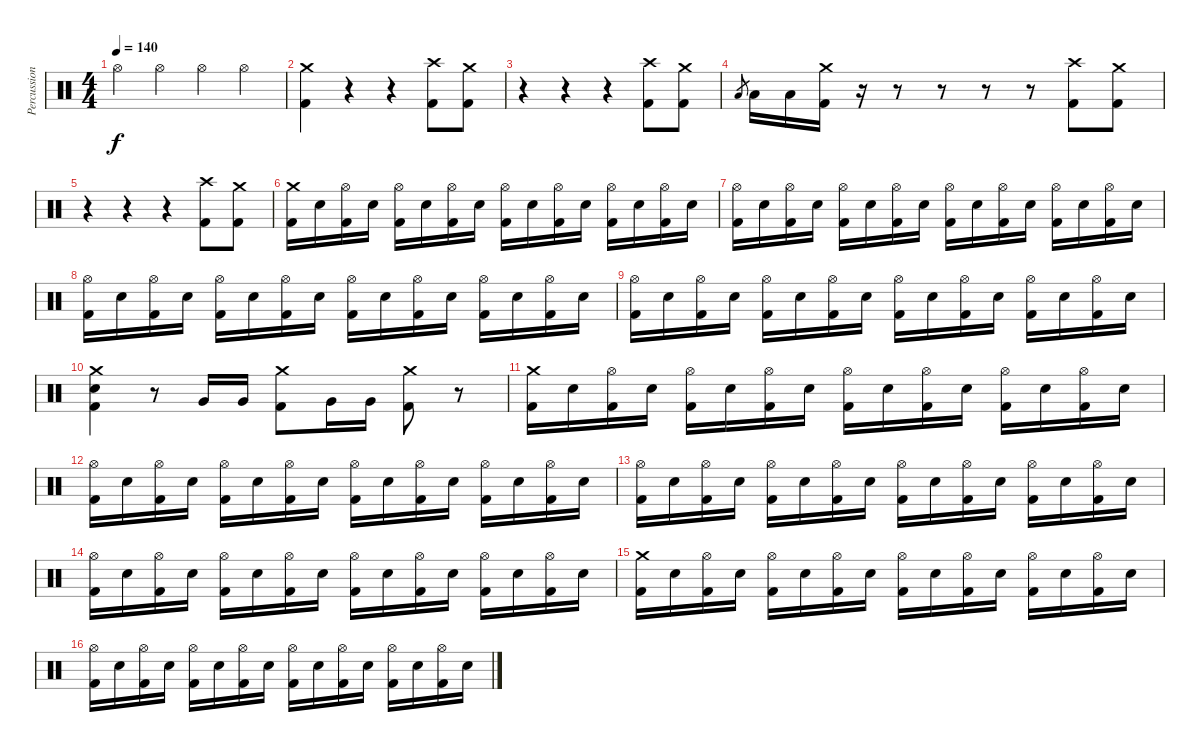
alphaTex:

\track ("Percussion" "Percussion") {instrument percussion}
\staff {score}
\articulation defaults
\ts (4 4)
\tempo 140
\clef neutral
\ks c "Hi-Hat (open)".4{dy f} "Hi-Hat (open)".4 "Hi-Hat (open)".4 "Hi-Hat (open)".4
|
("Crash medium (hit)" "Kick (hit) 2").4 r.4 r.4 ("Crash high (hit)" "Kick (hit) 2").8 ("Crash medium (hit)" "Kick (hit) 2").8 |
r.4 r.4 r.4 ("Crash high (hit)" "Kick (hit) 2").8 ("Crash medium (hit)" "Kick (hit) 2").8 |
"Low Floor Tom (hit)".8{gr} "Low Floor Tom (hit)".16 "Low Floor Tom (hit)".16 ("Crash medium (hit)" "Kick (hit) 2").16 r.16 r.8 r.8 r.8 r.8 ("Crash high (hit)" "Kick (hit) 2").8 ("Crash medium (hit)" "Kick (hit) 2").8 |
r.4 r.4 r.4 ("Crash high (hit)" "Kick (hit) 2").8 ("Crash medium (hit)" "Kick (hit) 2").8 |
("Crash medium (hit)" "Kick (hit) 2").16 "Electric Snare (hit)".16 ("Hi-Hat (open)" "Kick (hit) 2").16 "Electric Snare (hit)".16 ("Hi-Hat (open)" "Kick (hit) 2").16 "Electric Snare (hit)".16 ("Hi-Hat (open)" "Kick (hit) 2").16 "Electric Snare (hit)".16 ("Hi-Hat (open)" "Kick (hit) 2").16 "Electric Snare (hit)".16 ("Hi-Hat (open)" "Kick (hit) 2").16 "Electric Snare (hit)".16 ("Hi-Hat (open)" "Kick (hit) 2").16 "Electric Snare (hit)".16 ("Hi-Hat (open)" "Kick (hit) 2").16 "Electric Snare (hit)".16 |
("Hi-Hat (open)" "Kick (hit) 2").16 "Electric Snare (hit)".16 ("Hi-Hat (open)" "Kick (hit) 2").16 "Electric Snare (hit)".16 ("Hi-Hat (open)" "Kick (hit) 2").16 "Electric Snare (hit)".16 ("Hi-Hat (open)" "Kick (hit) 2").16 "Electric Snare (hit)".16 ("Hi-Hat (open)" "Kick (hit) 2").16 "Electric Snare (hit)".16 ("Hi-Hat (open)" "Kick (hit) 2").16 "Electric Snare (hit)".16 ("Hi-Hat (open)" "Kick (hit) 2").16 "Electric Snare (hit)".16 ("Hi-Hat (open)" "Kick (hit) 2").16 "Electric Snare (hit)".16 |
("Hi-Hat (open)" "Kick (hit) 2").16 "Electric Snare (hit)".16 ("Hi-Hat (open)" "Kick (hit) 2").16 "Electric Snare (hit)".16 ("Hi-Hat (open)" "Kick (hit) 2").16 "Electric Snare (hit)".16 ("Hi-Hat (open)" "Kick (hit) 2").16 "Electric Snare (hit)".16 ("Hi-Hat (open)" "Kick (hit) 2").16 "Electric Snare (hit)".16 ("Hi-Hat (open)" "Kick (hit) 2").16 "Electric Snare (hit)".16 ("Hi-Hat (open)" "Kick (hit) 2").16 "Electric Snare (hit)".16 ("Hi-Hat (open)" "Kick (hit) 2").16 "Electric Snare (hit)".16 |
("Hi-Hat (open)" "Kick (hit) 2").16 "Electric Snare (hit)".16 ("Hi-Hat (open)" "Kick (hit) 2").16 "Electric Snare (hit)".16 ("Hi-Hat (open)" "Kick (hit) 2").16 "Electric Snare (hit)".16 ("Hi-Hat (open)" "Kick (hit) 2").16 "Electric Snare (hit)".16 ("Hi-Hat (open)" "Kick (hit) 2").16 "Electric Snare (hit)".16 ("Hi-Hat (open)" "Kick (hit) 2").16 "Electric Snare (hit)".16 ("Hi-Hat (open)" "Kick (hit) 2").16 "Electric Snare (hit)".16 ("Hi-Hat (open)" "Kick (hit) 2").16 "Electric Snare (hit)".16 |
("Crash medium (hit)" "Electric Snare (hit)" "Kick (hit) 2").4 r.8 "Very Low Tom (hit)".16 "Very Low Tom (hit)".16 ("Crash medium (hit)" "Kick (hit) 2").8 "Very Low Tom (hit)".16 "Very Low Tom (hit)".16 ("Crash medium (hit)" "Kick (hit) 2").8 r.8 |
("Crash medium (hit)" "Kick (hit) 2").16 "Electric Snare (hit)".16 ("Hi-Hat (open)" "Kick (hit) 2").16 "Electric Snare (hit)".16 ("Hi-Hat (open)" "Kick (hit) 2").16 "Electric Snare (hit)".16 ("Hi-Hat (open)" "Kick (hit) 2").16 "Electric Snare (hit)".16 ("Hi-Hat (open)" "Kick (hit) 2").16 "Electric Snare (hit)".16 ("Hi-Hat (open)" "Kick (hit) 2").16 "Electric Snare (hit)".16 ("Hi-Hat (open)" "Kick (hit) 2").16 "Electric Snare (hit)".16 ("Hi-Hat (open)" "Kick (hit) 2").16 "Electric Snare (hit)".16 |
("Hi-Hat (open)" "Kick (hit) 2").16 "Electric Snare (hit)".16 ("Hi-Hat (open)" "Kick (hit) 2").16 "Electric Snare (hit)".16 ("Hi-Hat (open)" "Kick (hit) 2").16 "Electric Snare (hit)".16 ("Hi-Hat (open)" "Kick (hit) 2").16 "Electric Snare (hit)".16 ("Hi-Hat (open)" "Kick (hit) 2").16 "Electric Snare (hit)".16 ("Hi-Hat (open)" "Kick (hit) 2").16 "Electric Snare (hit)".16 ("Hi-Hat (open)" "Kick (hit) 2").16 "Electric Snare (hit)".16 ("Hi-Hat (open)" "Kick (hit) 2").16 "Electric Snare (hit)".16 |
("Hi-Hat (open)" "Kick (hit) 2").16 "Electric Snare (hit)".16 ("Hi-Hat (open)" "Kick (hit) 2").16 "Electric Snare (hit)".16 ("Hi-Hat (open)" "Kick (hit) 2").16 "Electric Snare (hit)".16 ("Hi-Hat (open)" "Kick (hit) 2").16 "Electric Snare (hit)".16 ("Hi-Hat (open)" "Kick (hit) 2").16 "Electric Snare (hit)".16 ("Hi-Hat (open)" "Kick (hit) 2").16 "Electric Snare (hit)".16 ("Hi-Hat (open)" "Kick (hit) 2").16 "Electric Snare (hit)".16 ("Hi-Hat (open)" "Kick (hit) 2").16 "Electric Snare (hit)".16 |
("Hi-Hat (open)" "Kick (hit) 2").16 "Electric Snare (hit)".16 ("Hi-Hat (open)" "Kick (hit) 2").16 "Electric Snare (hit)".16 ("Hi-Hat (open)" "Kick (hit) 2").16 "Electric Snare (hit)".16 ("Hi-Hat (open)" "Kick (hit) 2").16 "Electric Snare (hit)".16 ("Hi-Hat (open)" "Kick (hit) 2").16 "Electric Snare (hit)".16 ("Hi-Hat (open)" "Kick (hit) 2").16 "Electric Snare (hit)".16 ("Hi-Hat (open)" "Kick (hit) 2").16 "Electric Snare (hit)".16 ("Hi-Hat (open)" "Kick (hit) 2").16 "Electric Snare (hit)".16 |
("Crash medium (hit)" "Kick (hit) 2").16 "Electric Snare (hit)".16 ("Hi-Hat (open)" "Kick (hit) 2").16 "Electric Snare (hit)".16 ("Hi-Hat (open)" "Kick (hit) 2").16 "Electric Snare (hit)".16 ("Hi-Hat (open)" "Kick (hit) 2").16 "Electric Snare (hit)".16 ("Hi-Hat (open)" "Kick (hit) 2").16 "Electric Snare (hit)".16 ("Hi-Hat (open)" "Kick (hit) 2").16 "Electric Snare (hit)".16 ("Hi-Hat (open)" "Kick (hit) 2").16 "Electric Snare (hit)".16 ("Hi-Hat (open)" "Kick (hit) 2").16 "Electric Snare (hit)".16 |
("Hi-Hat (open)" "Kick (hit) 2").16 "Electric Snare (hit)".16 ("Hi-Hat (open)" "Kick (hit) 2").16 "Electric Snare (hit)".16 ("Hi-Hat (open)" "Kick (hit) 2").16 "Electric Snare (hit)".16 ("Hi-Hat (open)" "Kick (hit) 2").16 "Electric Snare (hit)".16 ("Hi-Hat (open)" "Kick (hit) 2").16 "Electric Snare (hit)".16 ("Hi-Hat (open)" "Kick (hit) 2").16 "Electric Snare (hit)".16 ("Hi-Hat (open)" "Kick (hit) 2").16 "Electric Snare (hit)".16 ("Hi-Hat (open)" "Kick (hit) 2").16 "Electric Snare (hit)".16
